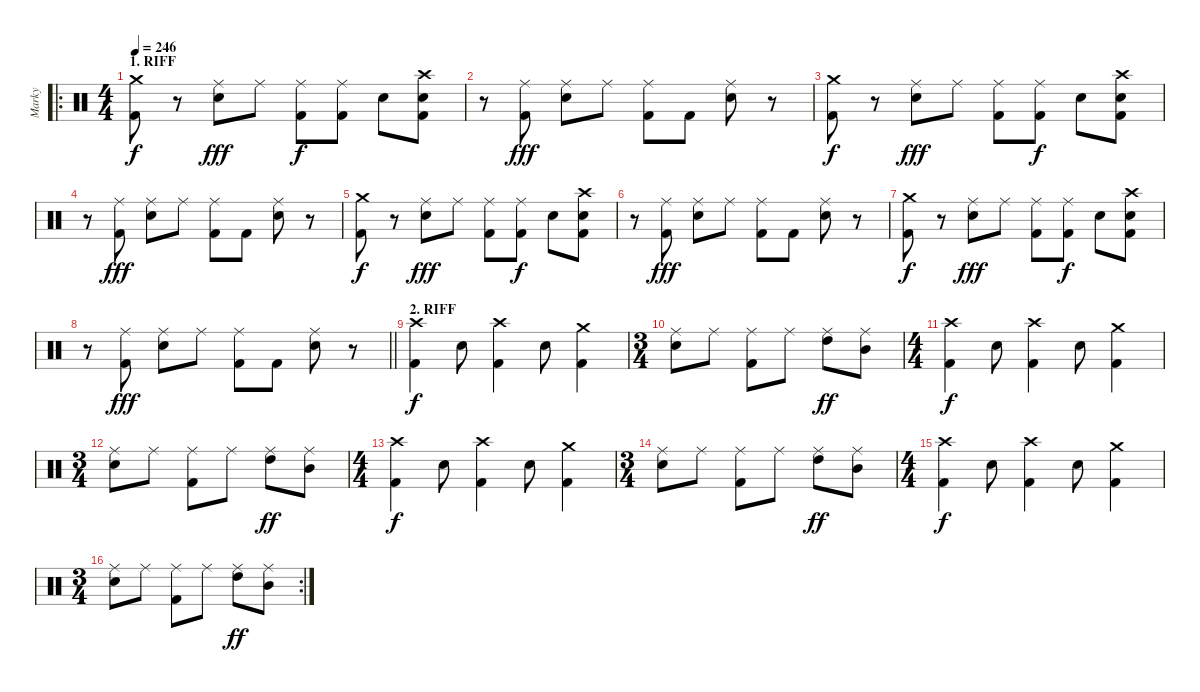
\track ("Marky" "Marky") {instrument percussion}
\staff {score}
\articulation defaults
\ro
\ts (4 4)
\section ("" "1. RIFF")
\tempo 246
\clef neutral
\ks c
("Crash medium (hit)" "Kick (hit) 2").8{dy f} r.8 ("Ride (middle)" "Snare (hit) 2").8{dy fff} "Ride (middle)".8 ("Ride (middle)" "Kick (hit) 2").8{dy f} ("Ride (middle)" "Kick (hit) 2").8 "Snare (hit) 2".8 ("Crash high (hit)" "Snare (hit) 2" "Kick (hit) 2").8 |
r.8 ("Ride (middle)" "Kick (hit) 2").8{dy fff} ("Ride (middle)" "Snare (hit) 2").8 "Ride (middle)".8 ("Ride (middle)" "Kick (hit) 2").8 "Kick (hit) 2".8 ("Ride (middle)" "Snare (hit) 2").8 r.8 |
("Crash medium (hit)" "Kick (hit) 2").8{dy f} r.8 ("Ride (middle)" "Snare (hit) 2").8{dy fff} "Ride (middle)".8 ("Ride (middle)" "Kick (hit) 2").8 ("Ride (middle)" "Kick (hit) 2").8{dy f} "Snare (hit) 2".8 ("Crash high (hit)" "Snare (hit) 2" "Kick (hit) 2").8 |
r.8 ("Ride (middle)" "Kick (hit) 2").8{dy fff} ("Ride (middle)" "Snare (hit) 2").8 "Ride (middle)".8 ("Ride (middle)" "Kick (hit) 2").8 "Kick (hit) 2".8 ("Ride (middle)" "Snare (hit) 2").8 r.8 |
("Crash medium (hit)" "Kick (hit) 2").8{dy f} r.8 ("Ride (middle)" "Snare (hit) 2").8{dy fff} "Ride (middle)".8 ("Ride (middle)" "Kick (hit) 2").8 ("Ride (middle)" "Kick (hit) 2").8{dy f} "Snare (hit) 2".8 ("Crash high (hit)" "Snare (hit) 2" "Kick (hit) 2").8 |
r.8 ("Ride (middle)" "Kick (hit) 2").8{dy fff} ("Ride (middle)" "Snare (hit) 2").8 "Ride (middle)".8 ("Ride (middle)" "Kick (hit) 2").8 "Kick (hit) 2".8 ("Ride (middle)" "Snare (hit) 2").8 r.8 |
("Crash medium (hit)" "Kick (hit) 2").8{dy f} r.8 ("Ride (middle)" "Snare (hit) 2").8{dy fff} "Ride (middle)".8 ("Ride (middle)" "Kick (hit) 2").8 ("Ride (middle)" "Kick (hit) 2").8{dy f} "Snare (hit) 2".8 ("Crash high (hit)" "Snare (hit) 2" "Kick (hit) 2").8 |
\barLineRight lightlight
r.8 ("Ride (middle)" "Kick (hit) 2").8{dy fff} ("Ride (middle)" "Snare (hit) 2").8 "Ride (middle)".8 ("Ride (middle)" "Kick (hit) 2").8 "Kick (hit) 2".8 ("Ride (middle)" "Snare (hit) 2").8 r.8 |
\section ("" "2. RIFF")
("Crash high (hit)" "Kick (hit) 2").4{dy f} "Snare (hit) 2".8 ("Crash high (hit)" "Kick (hit) 2").4 "Snare (hit) 2".8 ("Crash medium (hit)" "Kick (hit) 2").4 |
\ts (3 4)
("Ride (middle)" "Snare (hit) 2").8 "Ride (middle)".8 ("Ride (middle)" "Kick (hit) 2").8 "Ride (middle)".8 ("Ride (middle)" "High Tom (hit)").8{dy ff} ("Ride (middle)" "Mid Tom (hit)").8 |
\ts (4 4)
("Crash high (hit)" "Kick (hit) 2").4{dy f} "Snare (hit) 2".8 ("Crash high (hit)" "Kick (hit) 2").4 "Snare (hit) 2".8 ("Crash medium (hit)" "Kick (hit) 2").4 |
\ts (3 4)
("Ride (middle)" "Snare (hit) 2").8 "Ride (middle)".8 ("Ride (middle)" "Kick (hit) 2").8 "Ride (middle)".8 ("Ride (middle)" "High Tom (hit)").8{dy ff} ("Ride (middle)" "Mid Tom (hit)").8 |
\ts (4 4)
("Crash high (hit)" "Kick (hit) 2").4{dy f} "Snare (hit) 2".8 ("Crash high (hit)" "Kick (hit) 2").4 "Snare (hit) 2".8 ("Crash medium (hit)" "Kick (hit) 2").4 |
\ts (3 4)
("Ride (middle)" "Snare (hit) 2").8 "Ride (middle)".8 ("Ride (middle)" "Kick (hit) 2").8 "Ride (middle)".8 ("Ride (middle)" "High Tom (hit)").8{dy ff} ("Ride (middle)" "Mid Tom (hit)").8 |
\ts (4 4)
("Crash high (hit)" "Kick (hit) 2").4{dy f} "Snare (hit) 2".8 ("Crash high (hit)" "Kick (hit) 2").4 "Snare (hit) 2".8 ("Crash medium (hit)" "Kick (hit) 2").4 |
\rc 2
\ts (3 4)
("Ride (middle)" "Snare (hit) 2").8 "Ride (middle)".8 ("Ride (middle)" "Kick (hit) 2").8 "Ride (middle)".8 ("Ride (middle)" "High Tom (hit)").8{dy ff} ("Ride (middle)" "Mid Tom (hit)").8
